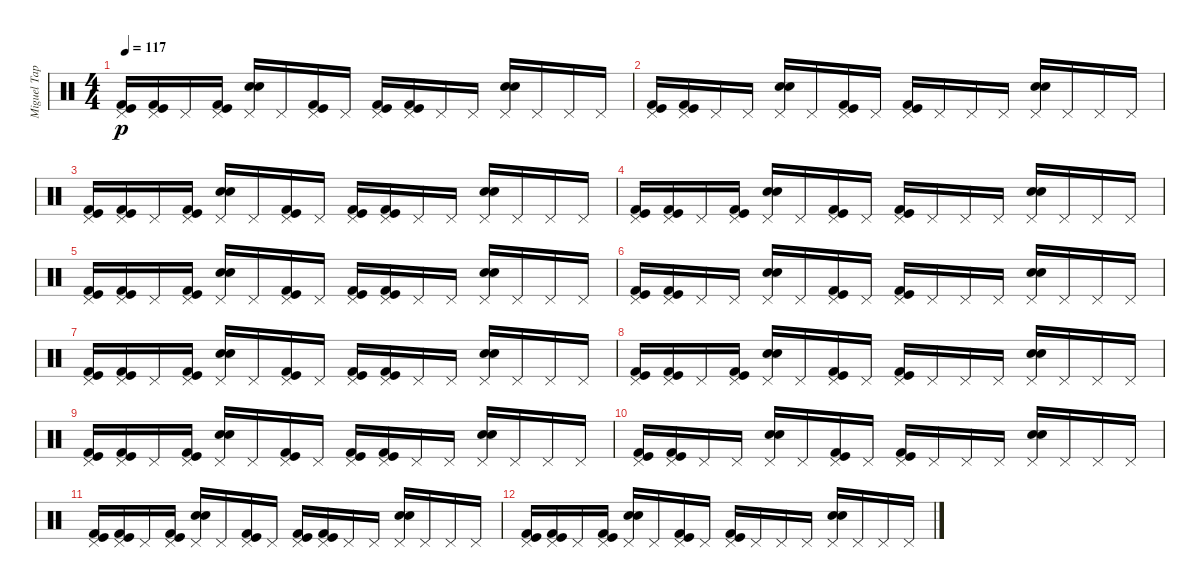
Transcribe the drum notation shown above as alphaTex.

\track ("Miguel Tapia" "Miguel Tap") {instrument percussion}
\staff {score}
\articulation defaults
\ts (4 4)
\tempo 117
\clef neutral
\ks c
("Kick (hit) 2" "Kick (hit)" "Pedal Hi-Hat (hit)").16{dy p} ("Kick (hit) 2" "Kick (hit)" "Pedal Hi-Hat (hit)").16 "Pedal Hi-Hat (hit)".16 ("Kick (hit) 2" "Kick (hit)" "Pedal Hi-Hat (hit)").16 ("Snare (hit) 2" "Electric Snare (hit)" "Pedal Hi-Hat (hit)").16 "Pedal Hi-Hat (hit)".16 ("Kick (hit) 2" "Kick (hit)" "Pedal Hi-Hat (hit)").16 "Pedal Hi-Hat (hit)".16 ("Kick (hit)" "Kick (hit) 2" "Pedal Hi-Hat (hit)").16 ("Kick (hit)" "Kick (hit) 2" "Pedal Hi-Hat (hit)").16 "Pedal Hi-Hat (hit)".16 "Pedal Hi-Hat (hit)".16 ("Snare (hit) 2" "Electric Snare (hit)" "Pedal Hi-Hat (hit)").16 "Pedal Hi-Hat (hit)".16 "Pedal Hi-Hat (hit)".16 "Pedal Hi-Hat (hit)".16 |
("Kick (hit) 2" "Kick (hit)" "Pedal Hi-Hat (hit)").16 ("Kick (hit) 2" "Kick (hit)" "Pedal Hi-Hat (hit)").16 "Pedal Hi-Hat (hit)".16 "Pedal Hi-Hat (hit)".16 ("Snare (hit) 2" "Electric Snare (hit)" "Pedal Hi-Hat (hit)").16 "Pedal Hi-Hat (hit)".16 ("Kick (hit) 2" "Kick (hit)" "Pedal Hi-Hat (hit)").16 "Pedal Hi-Hat (hit)".16 ("Kick (hit)" "Kick (hit) 2" "Pedal Hi-Hat (hit)").16 "Pedal Hi-Hat (hit)".16 "Pedal Hi-Hat (hit)".16 "Pedal Hi-Hat (hit)".16 ("Snare (hit) 2" "Electric Snare (hit)" "Pedal Hi-Hat (hit)").16 "Pedal Hi-Hat (hit)".16 "Pedal Hi-Hat (hit)".16 "Pedal Hi-Hat (hit)".16 |
("Kick (hit) 2" "Kick (hit)" "Pedal Hi-Hat (hit)").16 ("Kick (hit) 2" "Kick (hit)" "Pedal Hi-Hat (hit)").16 "Pedal Hi-Hat (hit)".16 ("Kick (hit) 2" "Kick (hit)" "Pedal Hi-Hat (hit)").16 ("Snare (hit) 2" "Electric Snare (hit)" "Pedal Hi-Hat (hit)").16 "Pedal Hi-Hat (hit)".16 ("Kick (hit) 2" "Kick (hit)" "Pedal Hi-Hat (hit)").16 "Pedal Hi-Hat (hit)".16 ("Kick (hit)" "Kick (hit) 2" "Pedal Hi-Hat (hit)").16 ("Kick (hit)" "Kick (hit) 2" "Pedal Hi-Hat (hit)").16 "Pedal Hi-Hat (hit)".16 "Pedal Hi-Hat (hit)".16 ("Snare (hit) 2" "Electric Snare (hit)" "Pedal Hi-Hat (hit)").16 "Pedal Hi-Hat (hit)".16 "Pedal Hi-Hat (hit)".16 "Pedal Hi-Hat (hit)".16 |
("Kick (hit) 2" "Kick (hit)" "Pedal Hi-Hat (hit)").16 ("Kick (hit) 2" "Kick (hit)" "Pedal Hi-Hat (hit)").16 "Pedal Hi-Hat (hit)".16 ("Kick (hit)" "Kick (hit) 2" "Pedal Hi-Hat (hit)").16 ("Snare (hit) 2" "Electric Snare (hit)" "Pedal Hi-Hat (hit)").16 "Pedal Hi-Hat (hit)".16 ("Kick (hit) 2" "Kick (hit)" "Pedal Hi-Hat (hit)").16 "Pedal Hi-Hat (hit)".16 ("Kick (hit)" "Kick (hit) 2" "Pedal Hi-Hat (hit)").16 "Pedal Hi-Hat (hit)".16 "Pedal Hi-Hat (hit)".16 "Pedal Hi-Hat (hit)".16 ("Snare (hit) 2" "Electric Snare (hit)" "Pedal Hi-Hat (hit)").16 "Pedal Hi-Hat (hit)".16 "Pedal Hi-Hat (hit)".16 "Pedal Hi-Hat (hit)".16 |
("Kick (hit) 2" "Kick (hit)" "Pedal Hi-Hat (hit)").16 ("Kick (hit) 2" "Kick (hit)" "Pedal Hi-Hat (hit)").16 "Pedal Hi-Hat (hit)".16 ("Kick (hit) 2" "Kick (hit)" "Pedal Hi-Hat (hit)").16 ("Snare (hit) 2" "Electric Snare (hit)" "Pedal Hi-Hat (hit)").16 "Pedal Hi-Hat (hit)".16 ("Kick (hit) 2" "Kick (hit)" "Pedal Hi-Hat (hit)").16 "Pedal Hi-Hat (hit)".16 ("Kick (hit)" "Kick (hit) 2" "Pedal Hi-Hat (hit)").16 ("Kick (hit)" "Kick (hit) 2" "Pedal Hi-Hat (hit)").16 "Pedal Hi-Hat (hit)".16 "Pedal Hi-Hat (hit)".16 ("Snare (hit) 2" "Electric Snare (hit)" "Pedal Hi-Hat (hit)").16 "Pedal Hi-Hat (hit)".16 "Pedal Hi-Hat (hit)".16 "Pedal Hi-Hat (hit)".16 |
("Kick (hit) 2" "Kick (hit)" "Pedal Hi-Hat (hit)").16 ("Kick (hit) 2" "Kick (hit)" "Pedal Hi-Hat (hit)").16 "Pedal Hi-Hat (hit)".16 "Pedal Hi-Hat (hit)".16 ("Snare (hit) 2" "Electric Snare (hit)" "Pedal Hi-Hat (hit)").16 "Pedal Hi-Hat (hit)".16 ("Kick (hit) 2" "Kick (hit)" "Pedal Hi-Hat (hit)").16 "Pedal Hi-Hat (hit)".16 ("Kick (hit)" "Kick (hit) 2" "Pedal Hi-Hat (hit)").16 "Pedal Hi-Hat (hit)".16 "Pedal Hi-Hat (hit)".16 "Pedal Hi-Hat (hit)".16 ("Snare (hit) 2" "Electric Snare (hit)" "Pedal Hi-Hat (hit)").16 "Pedal Hi-Hat (hit)".16 "Pedal Hi-Hat (hit)".16 "Pedal Hi-Hat (hit)".16 |
("Kick (hit) 2" "Kick (hit)" "Pedal Hi-Hat (hit)").16 ("Kick (hit) 2" "Kick (hit)" "Pedal Hi-Hat (hit)").16 "Pedal Hi-Hat (hit)".16 ("Kick (hit) 2" "Kick (hit)" "Pedal Hi-Hat (hit)").16 ("Snare (hit) 2" "Electric Snare (hit)" "Pedal Hi-Hat (hit)").16 "Pedal Hi-Hat (hit)".16 ("Kick (hit) 2" "Kick (hit)" "Pedal Hi-Hat (hit)").16 "Pedal Hi-Hat (hit)".16 ("Kick (hit)" "Kick (hit) 2" "Pedal Hi-Hat (hit)").16 ("Kick (hit)" "Kick (hit) 2" "Pedal Hi-Hat (hit)").16 "Pedal Hi-Hat (hit)".16 "Pedal Hi-Hat (hit)".16 ("Snare (hit) 2" "Electric Snare (hit)" "Pedal Hi-Hat (hit)").16 "Pedal Hi-Hat (hit)".16 "Pedal Hi-Hat (hit)".16 "Pedal Hi-Hat (hit)".16 |
("Kick (hit) 2" "Kick (hit)" "Pedal Hi-Hat (hit)").16 ("Kick (hit) 2" "Kick (hit)" "Pedal Hi-Hat (hit)").16 "Pedal Hi-Hat (hit)".16 ("Kick (hit)" "Kick (hit) 2" "Pedal Hi-Hat (hit)").16 ("Snare (hit) 2" "Electric Snare (hit)" "Pedal Hi-Hat (hit)").16 "Pedal Hi-Hat (hit)".16 ("Kick (hit) 2" "Kick (hit)" "Pedal Hi-Hat (hit)").16 "Pedal Hi-Hat (hit)".16 ("Kick (hit)" "Kick (hit) 2" "Pedal Hi-Hat (hit)").16 "Pedal Hi-Hat (hit)".16 "Pedal Hi-Hat (hit)".16 "Pedal Hi-Hat (hit)".16 ("Snare (hit) 2" "Electric Snare (hit)" "Pedal Hi-Hat (hit)").16 "Pedal Hi-Hat (hit)".16 "Pedal Hi-Hat (hit)".16 "Pedal Hi-Hat (hit)".16 |
("Kick (hit) 2" "Kick (hit)" "Pedal Hi-Hat (hit)").16 ("Kick (hit) 2" "Kick (hit)" "Pedal Hi-Hat (hit)").16 "Pedal Hi-Hat (hit)".16 ("Kick (hit) 2" "Kick (hit)" "Pedal Hi-Hat (hit)").16 ("Snare (hit) 2" "Electric Snare (hit)" "Pedal Hi-Hat (hit)").16 "Pedal Hi-Hat (hit)".16 ("Kick (hit) 2" "Kick (hit)" "Pedal Hi-Hat (hit)").16 "Pedal Hi-Hat (hit)".16 ("Kick (hit)" "Kick (hit) 2" "Pedal Hi-Hat (hit)").16 ("Kick (hit)" "Kick (hit) 2" "Pedal Hi-Hat (hit)").16 "Pedal Hi-Hat (hit)".16 "Pedal Hi-Hat (hit)".16 ("Snare (hit) 2" "Electric Snare (hit)" "Pedal Hi-Hat (hit)").16 "Pedal Hi-Hat (hit)".16 "Pedal Hi-Hat (hit)".16 "Pedal Hi-Hat (hit)".16 |
("Kick (hit) 2" "Kick (hit)" "Pedal Hi-Hat (hit)").16 ("Kick (hit) 2" "Kick (hit)" "Pedal Hi-Hat (hit)").16 "Pedal Hi-Hat (hit)".16 "Pedal Hi-Hat (hit)".16 ("Snare (hit) 2" "Electric Snare (hit)" "Pedal Hi-Hat (hit)").16 "Pedal Hi-Hat (hit)".16 ("Kick (hit) 2" "Kick (hit)" "Pedal Hi-Hat (hit)").16 "Pedal Hi-Hat (hit)".16 ("Kick (hit)" "Kick (hit) 2" "Pedal Hi-Hat (hit)").16 "Pedal Hi-Hat (hit)".16 "Pedal Hi-Hat (hit)".16 "Pedal Hi-Hat (hit)".16 ("Snare (hit) 2" "Electric Snare (hit)" "Pedal Hi-Hat (hit)").16 "Pedal Hi-Hat (hit)".16 "Pedal Hi-Hat (hit)".16 "Pedal Hi-Hat (hit)".16 |
("Kick (hit) 2" "Kick (hit)" "Pedal Hi-Hat (hit)").16 ("Kick (hit) 2" "Kick (hit)" "Pedal Hi-Hat (hit)").16 "Pedal Hi-Hat (hit)".16 ("Kick (hit) 2" "Kick (hit)" "Pedal Hi-Hat (hit)").16 ("Snare (hit) 2" "Electric Snare (hit)" "Pedal Hi-Hat (hit)").16 "Pedal Hi-Hat (hit)".16 ("Kick (hit) 2" "Kick (hit)" "Pedal Hi-Hat (hit)").16 "Pedal Hi-Hat (hit)".16 ("Kick (hit)" "Kick (hit) 2" "Pedal Hi-Hat (hit)").16 ("Kick (hit)" "Kick (hit) 2" "Pedal Hi-Hat (hit)").16 "Pedal Hi-Hat (hit)".16 "Pedal Hi-Hat (hit)".16 ("Snare (hit) 2" "Electric Snare (hit)" "Pedal Hi-Hat (hit)").16 "Pedal Hi-Hat (hit)".16 "Pedal Hi-Hat (hit)".16 "Pedal Hi-Hat (hit)".16 |
("Kick (hit) 2" "Kick (hit)" "Pedal Hi-Hat (hit)").16 ("Kick (hit) 2" "Kick (hit)" "Pedal Hi-Hat (hit)").16 "Pedal Hi-Hat (hit)".16 ("Kick (hit)" "Kick (hit) 2" "Pedal Hi-Hat (hit)").16 ("Snare (hit) 2" "Electric Snare (hit)" "Pedal Hi-Hat (hit)").16 "Pedal Hi-Hat (hit)".16 ("Kick (hit) 2" "Kick (hit)" "Pedal Hi-Hat (hit)").16 "Pedal Hi-Hat (hit)".16 ("Kick (hit)" "Kick (hit) 2" "Pedal Hi-Hat (hit)").16 "Pedal Hi-Hat (hit)".16 "Pedal Hi-Hat (hit)".16 "Pedal Hi-Hat (hit)".16 ("Snare (hit) 2" "Electric Snare (hit)" "Pedal Hi-Hat (hit)").16 "Pedal Hi-Hat (hit)".16 "Pedal Hi-Hat (hit)".16 "Pedal Hi-Hat (hit)".16
